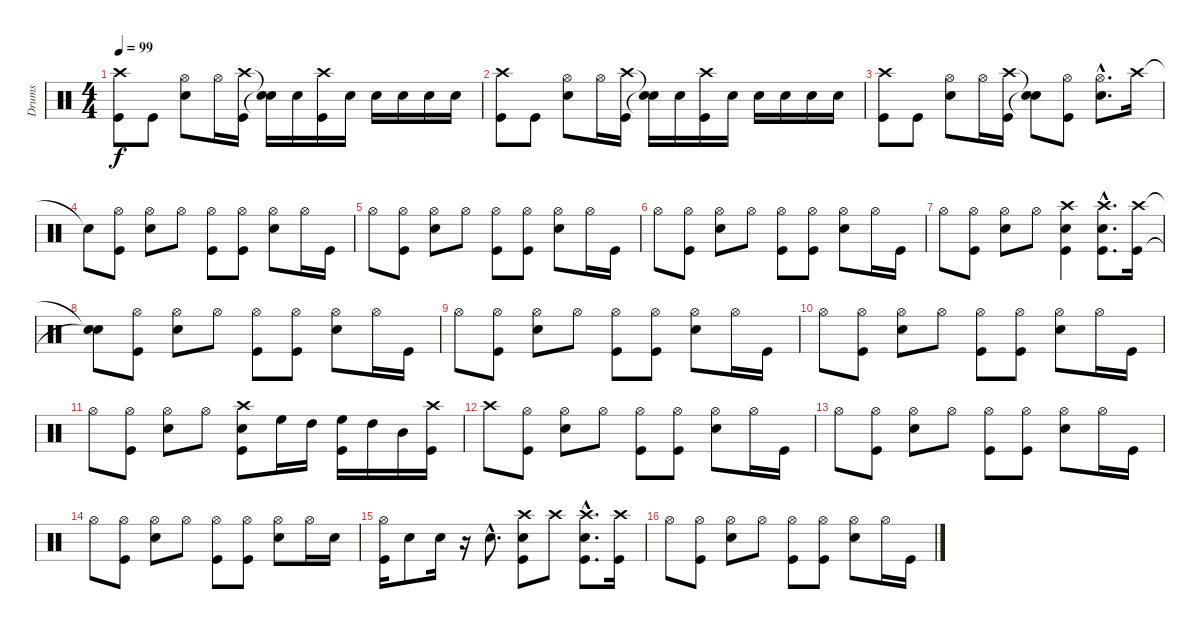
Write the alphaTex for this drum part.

\track ("Drums" "Drums") {instrument percussion}
\staff {score}
\articulation defaults
\ts (4 4)
\tempo 99
\clef neutral
\ks c
("Crash high (hit)" "Kick (hit)").8{dy f} "Kick (hit)".8 ("Hi-Hat (open)" "Electric Snare (hit)").8 "Hi-Hat (open)".16 ("Crash high (hit)" "Kick (hit)").16 ("Snare (hit)"{t} "Snare (hit)"{t}).16 "Electric Snare (hit)".16 ("Crash high (hit)" "Kick (hit)").16 "Electric Snare (hit)".16 "Electric Snare (hit)".16 "Electric Snare (hit)".16 "Electric Snare (hit)".16 "Electric Snare (hit)".16 |
("Crash high (hit)" "Kick (hit)").8 "Kick (hit)".8 ("Hi-Hat (open)" "Electric Snare (hit)").8 "Hi-Hat (open)".16 ("Crash high (hit)" "Kick (hit)").16 ("Snare (hit)"{t} "Snare (hit)"{t}).16 "Electric Snare (hit)".16 ("Crash high (hit)" "Kick (hit)").16 "Electric Snare (hit)".16 "Electric Snare (hit)".16 "Electric Snare (hit)".16 "Electric Snare (hit)".16 "Electric Snare (hit)".16 |
("Crash high (hit)" "Kick (hit)").8 "Kick (hit)".8 ("Hi-Hat (open)" "Electric Snare (hit)").8 "Hi-Hat (open)".16 ("Crash high (hit)" "Kick (hit)").16 ("Snare (hit)"{t} "Snare (hit)"{t}).8 ("Hi-Hat (open)" "Kick (hit)").8 ("Hi-Hat (open)"{hac} "Electric Snare (hit)"{hac}).8{d} "Crash high (hit)".16 |
"Snare (hit)"{t}.8 ("Hi-Hat (open)" "Kick (hit)").8 ("Hi-Hat (open)" "Electric Snare (hit)").8 "Hi-Hat (open)".8 ("Hi-Hat (open)" "Kick (hit)").8 ("Hi-Hat (open)" "Kick (hit)").8 ("Hi-Hat (open)" "Electric Snare (hit)").8 "Hi-Hat (open)".16 "Kick (hit)".16 |
"Hi-Hat (open)".8 ("Hi-Hat (open)" "Kick (hit)").8 ("Hi-Hat (open)" "Electric Snare (hit)").8 "Hi-Hat (open)".8 ("Hi-Hat (open)" "Kick (hit)").8 ("Hi-Hat (open)" "Kick (hit)").8 ("Hi-Hat (open)" "Electric Snare (hit)").8 "Hi-Hat (open)".16 "Kick (hit)".16 |
"Hi-Hat (open)".8 ("Hi-Hat (open)" "Kick (hit)").8 ("Hi-Hat (open)" "Electric Snare (hit)").8 "Hi-Hat (open)".8 ("Hi-Hat (open)" "Kick (hit)").8 ("Hi-Hat (open)" "Kick (hit)").8 ("Hi-Hat (open)" "Electric Snare (hit)").8 "Hi-Hat (open)".16 "Kick (hit)".16 |
"Hi-Hat (open)".8 ("Hi-Hat (open)" "Kick (hit)").8 ("Hi-Hat (open)" "Electric Snare (hit)").8 "Hi-Hat (open)".8 ("Crash high (hit)" "Electric Snare (hit)" "Kick (hit)").4 ("Crash high (hit)"{hac} "Electric Snare (hit)"{hac} "Kick (hit)"{hac}).8{d} ("Crash high (hit)" "Kick (hit)").16 |
("Snare (hit)"{t} "Snare (hit)"{t}).8 ("Hi-Hat (open)" "Kick (hit)").8 ("Hi-Hat (open)" "Electric Snare (hit)").8 "Hi-Hat (open)".8 ("Hi-Hat (open)" "Kick (hit)").8 ("Hi-Hat (open)" "Kick (hit)").8 ("Hi-Hat (open)" "Electric Snare (hit)").8 "Hi-Hat (open)".16 "Kick (hit)".16 |
"Hi-Hat (open)".8 ("Hi-Hat (open)" "Kick (hit)").8 ("Hi-Hat (open)" "Electric Snare (hit)").8 "Hi-Hat (open)".8 ("Hi-Hat (open)" "Kick (hit)").8 ("Hi-Hat (open)" "Kick (hit)").8 ("Hi-Hat (open)" "Electric Snare (hit)").8 "Hi-Hat (open)".16 "Kick (hit)".16 |
"Hi-Hat (open)".8 ("Hi-Hat (open)" "Kick (hit)").8 ("Hi-Hat (open)" "Electric Snare (hit)").8 "Hi-Hat (open)".8 ("Hi-Hat (open)" "Kick (hit)").8 ("Hi-Hat (open)" "Kick (hit)").8 ("Hi-Hat (open)" "Electric Snare (hit)").8 "Hi-Hat (open)".16 "Kick (hit)".16 |
"Hi-Hat (open)".8 ("Hi-Hat (open)" "Kick (hit)").8 ("Hi-Hat (open)" "Electric Snare (hit)").8 "Hi-Hat (open)".8 ("Crash high (hit)" "Electric Snare (hit)" "Kick (hit)").8 "High Floor Tom (hit)".16 "High Tom (hit)".16 ("High Floor Tom (hit)" "Kick (hit)").16 "High Tom (hit)".16 "Mid Tom (hit)".16 ("Crash high (hit)" "Kick (hit)").16 |
"Crash high (hit)".8 ("Hi-Hat (open)" "Kick (hit)").8 ("Hi-Hat (open)" "Electric Snare (hit)").8 "Hi-Hat (open)".8 ("Hi-Hat (open)" "Kick (hit)").8 ("Hi-Hat (open)" "Kick (hit)").8 ("Hi-Hat (open)" "Electric Snare (hit)").8 "Hi-Hat (open)".16 "Kick (hit)".16 |
"Hi-Hat (open)".8 ("Hi-Hat (open)" "Kick (hit)").8 ("Hi-Hat (open)" "Electric Snare (hit)").8 "Hi-Hat (open)".8 ("Hi-Hat (open)" "Kick (hit)").8 ("Hi-Hat (open)" "Kick (hit)").8 ("Hi-Hat (open)" "Electric Snare (hit)").8 "Hi-Hat (open)".16 "Kick (hit)".16 |
"Hi-Hat (open)".8 ("Hi-Hat (open)" "Kick (hit)").8 ("Hi-Hat (open)" "Electric Snare (hit)").8 "Hi-Hat (open)".8 ("Hi-Hat (open)" "Kick (hit)").8 ("Hi-Hat (open)" "Kick (hit)").8 ("Hi-Hat (open)" "Electric Snare (hit)").8 "Hi-Hat (open)".16 "Electric Snare (hit)".16 |
("Hi-Hat (open)" "Kick (hit)").16 "Electric Snare (hit)".8 "Electric Snare (hit)".16 r.16 "Electric Snare (hit)"{hac}.8{d} ("Crash high (hit)" "Electric Snare (hit)" "Kick (hit)").8 "Crash high (hit)".8 ("Crash high (hit)"{hac} "Electric Snare (hit)"{hac} "Kick (hit)"{hac}).8{d} ("Crash high (hit)" "Kick (hit)").16 |
"Hi-Hat (open)".8 ("Hi-Hat (open)" "Kick (hit)").8 ("Hi-Hat (open)" "Electric Snare (hit)").8 "Hi-Hat (open)".8 ("Hi-Hat (open)" "Kick (hit)").8 ("Hi-Hat (open)" "Kick (hit)").8 ("Hi-Hat (open)" "Electric Snare (hit)").8 "Hi-Hat (open)".16 "Kick (hit)".16
